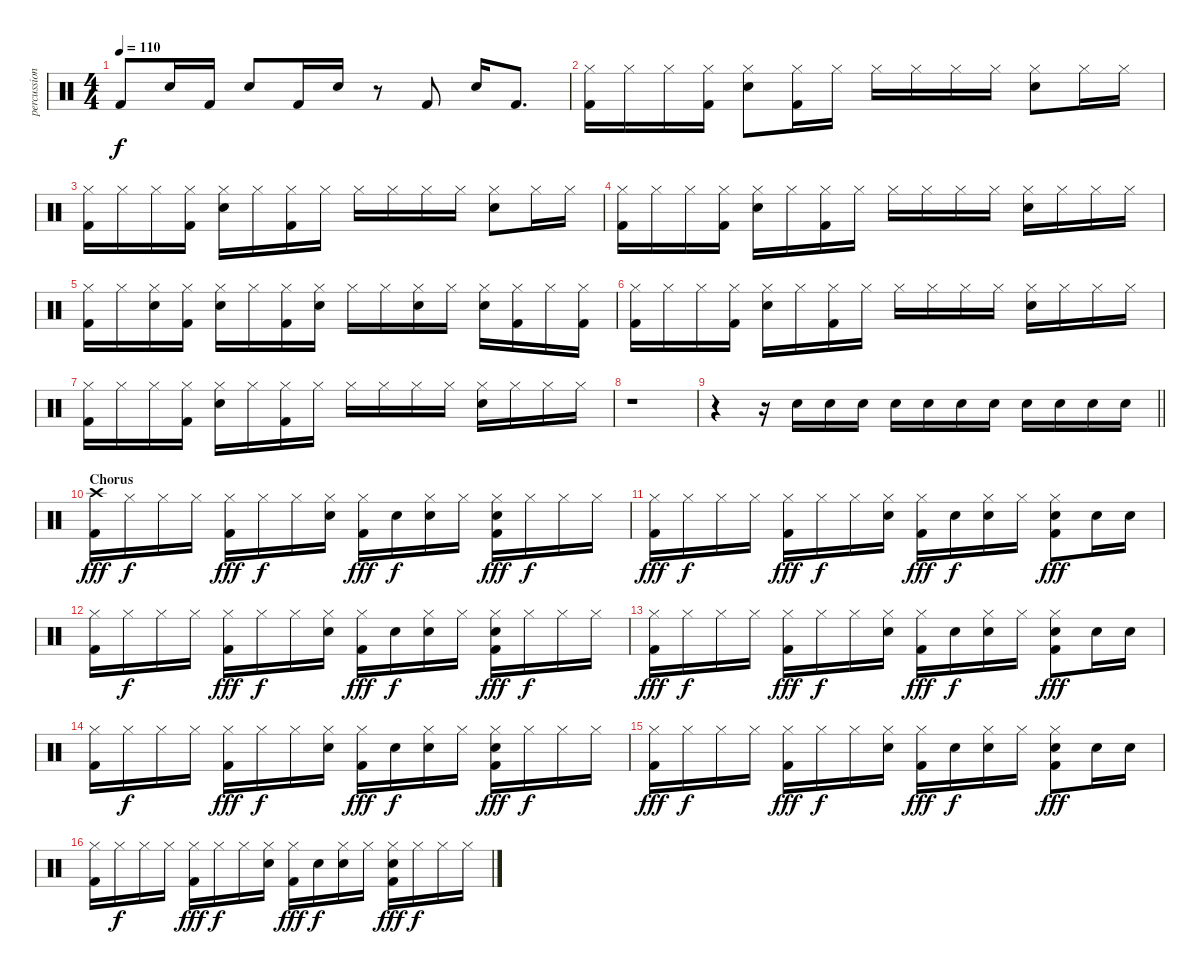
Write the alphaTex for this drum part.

\track ("percussion []" "percussion") {instrument percussion}
\staff {score}
\articulation defaults
\ts (4 4)
\tempo 110
\clef neutral
\ks c "Kick (hit) 2".8{dy f} "Electric Snare (hit)".16 "Kick (hit) 2".16 "Electric Snare (hit)".8 "Kick (hit) 2".16 "Electric Snare (hit)".16
r.8 "Kick (hit) 2".8 "Electric Snare (hit)".16 "Kick (hit) 2".8{d} |
("Hi-Hat (closed)" "Kick (hit) 2").16 "Hi-Hat (closed)".16 "Hi-Hat (closed)".16 ("Hi-Hat (closed)" "Kick (hit) 2").16 ("Electric Snare (hit)" "Hi-Hat (closed)").8 ("Hi-Hat (closed)" "Kick (hit) 2").16 "Hi-Hat (closed)".16 "Hi-Hat (closed)".16 "Hi-Hat (closed)".16 "Hi-Hat (closed)".16 "Hi-Hat (closed)".16 ("Electric Snare (hit)" "Hi-Hat (closed)").8 "Hi-Hat (closed)".16 "Hi-Hat (closed)".16 |
("Hi-Hat (closed)" "Kick (hit) 2").16 "Hi-Hat (closed)".16 "Hi-Hat (closed)".16 ("Hi-Hat (closed)" "Kick (hit) 2").16 ("Electric Snare (hit)" "Hi-Hat (closed)").16 "Hi-Hat (closed)".16 ("Hi-Hat (closed)" "Kick (hit) 2").16 "Hi-Hat (closed)".16 "Hi-Hat (closed)".16 "Hi-Hat (closed)".16 "Hi-Hat (closed)".16 "Hi-Hat (closed)".16 ("Electric Snare (hit)" "Hi-Hat (closed)").8 "Hi-Hat (closed)".16 "Hi-Hat (closed)".16 |
("Hi-Hat (closed)" "Kick (hit) 2").16 "Hi-Hat (closed)".16 "Hi-Hat (closed)".16 ("Hi-Hat (closed)" "Kick (hit) 2").16 ("Electric Snare (hit)" "Hi-Hat (closed)").16 "Hi-Hat (closed)".16 ("Hi-Hat (closed)" "Kick (hit) 2").16 "Hi-Hat (closed)".16 "Hi-Hat (closed)".16 "Hi-Hat (closed)".16 "Hi-Hat (closed)".16 "Hi-Hat (closed)".16 ("Electric Snare (hit)" "Hi-Hat (closed)").16 "Hi-Hat (closed)".16 "Hi-Hat (closed)".16 "Hi-Hat (closed)".16 |
("Hi-Hat (closed)" "Kick (hit) 2").16 "Hi-Hat (closed)".16 ("Electric Snare (hit)" "Hi-Hat (closed)").16 ("Hi-Hat (closed)" "Kick (hit) 2").16 ("Electric Snare (hit)" "Hi-Hat (closed)").16 "Hi-Hat (closed)".16 ("Hi-Hat (closed)" "Kick (hit) 2").16 ("Electric Snare (hit)" "Hi-Hat (closed)").16 "Hi-Hat (closed)".16 "Hi-Hat (closed)".16 ("Electric Snare (hit)" "Hi-Hat (closed)").16 "Hi-Hat (closed)".16 ("Electric Snare (hit)" "Hi-Hat (closed)").16 ("Hi-Hat (closed)" "Kick (hit) 2").16 "Hi-Hat (closed)".16 ("Hi-Hat (closed)" "Kick (hit) 2").16 |
("Hi-Hat (closed)" "Kick (hit) 2").16 "Hi-Hat (closed)".16 "Hi-Hat (closed)".16 ("Hi-Hat (closed)" "Kick (hit) 2").16 ("Electric Snare (hit)" "Hi-Hat (closed)").16 "Hi-Hat (closed)".16 ("Hi-Hat (closed)" "Kick (hit) 2").16 "Hi-Hat (closed)".16 "Hi-Hat (closed)".16 "Hi-Hat (closed)".16 "Hi-Hat (closed)".16 "Hi-Hat (closed)".16 ("Electric Snare (hit)" "Hi-Hat (closed)").16 "Hi-Hat (closed)".16 "Hi-Hat (closed)".16 "Hi-Hat (closed)".16 |
("Hi-Hat (closed)" "Kick (hit) 2").16 "Hi-Hat (closed)".16 "Hi-Hat (closed)".16 ("Hi-Hat (closed)" "Kick (hit) 2").16 ("Electric Snare (hit)" "Hi-Hat (closed)").16 "Hi-Hat (closed)".16 ("Hi-Hat (closed)" "Kick (hit) 2").16 "Hi-Hat (closed)".16 "Hi-Hat (closed)".16 "Hi-Hat (closed)".16 "Hi-Hat (closed)".16 "Hi-Hat (closed)".16 ("Electric Snare (hit)" "Hi-Hat (closed)").16 "Hi-Hat (closed)".16 "Hi-Hat (closed)".16 "Hi-Hat (closed)".16 |
r.1 |
\barLineRight lightlight
r.4 r.16 "Electric Snare (hit)".16 "Electric Snare (hit)".16 "Electric Snare (hit)".16 "Electric Snare (hit)".16 "Electric Snare (hit)".16 "Electric Snare (hit)".16 "Electric Snare (hit)".16 "Electric Snare (hit)".16 "Electric Snare (hit)".16 "Electric Snare (hit)".16 "Electric Snare (hit)".16 |
\section ("" "Chorus")
("Crash high (hit)" "Kick (hit) 2").16{dy fff} "Hi-Hat (closed)".16{dy f} "Hi-Hat (closed)".16 "Hi-Hat (closed)".16 ("Hi-Hat (closed)" "Kick (hit) 2").16{dy fff} "Hi-Hat (closed)".16{dy f} "Hi-Hat (closed)".16 ("Electric Snare (hit)" "Hi-Hat (closed)").16 ("Hi-Hat (closed)" "Kick (hit) 2").16{dy fff} "Electric Snare (hit)".16{dy f} ("Electric Snare (hit)" "Hi-Hat (closed)").16 "Hi-Hat (closed)".16 ("Electric Snare (hit)" "Hi-Hat (closed)" "Kick (hit) 2").16{dy fff} "Hi-Hat (closed)".16{dy f} "Hi-Hat (closed)".16 "Hi-Hat (closed)".16 |
("Hi-Hat (closed)" "Kick (hit) 2").16{dy fff} "Hi-Hat (closed)".16{dy f} "Hi-Hat (closed)".16 "Hi-Hat (closed)".16 ("Hi-Hat (closed)" "Kick (hit) 2").16{dy fff} "Hi-Hat (closed)".16{dy f} "Hi-Hat (closed)".16 ("Electric Snare (hit)" "Hi-Hat (closed)").16 ("Hi-Hat (closed)" "Kick (hit) 2").16{dy fff} "Electric Snare (hit)".16{dy f} ("Electric Snare (hit)" "Hi-Hat (closed)").16 "Hi-Hat (closed)".16 ("Electric Snare (hit)" "Hi-Hat (closed)" "Kick (hit) 2").8{dy fff} "Electric Snare (hit)".16 "Electric Snare (hit)".16 |
("Hi-Hat (closed)" "Kick (hit) 2").16 "Hi-Hat (closed)".16{dy f} "Hi-Hat (closed)".16 "Hi-Hat (closed)".16 ("Hi-Hat (closed)" "Kick (hit) 2").16{dy fff} "Hi-Hat (closed)".16{dy f} "Hi-Hat (closed)".16 ("Electric Snare (hit)" "Hi-Hat (closed)").16 ("Hi-Hat (closed)" "Kick (hit) 2").16{dy fff} "Electric Snare (hit)".16{dy f} ("Electric Snare (hit)" "Hi-Hat (closed)").16 "Hi-Hat (closed)".16 ("Electric Snare (hit)" "Hi-Hat (closed)" "Kick (hit) 2").16{dy fff} "Hi-Hat (closed)".16{dy f} "Hi-Hat (closed)".16 "Hi-Hat (closed)".16 |
("Hi-Hat (closed)" "Kick (hit) 2").16{dy fff} "Hi-Hat (closed)".16{dy f} "Hi-Hat (closed)".16 "Hi-Hat (closed)".16 ("Hi-Hat (closed)" "Kick (hit) 2").16{dy fff} "Hi-Hat (closed)".16{dy f} "Hi-Hat (closed)".16 ("Electric Snare (hit)" "Hi-Hat (closed)").16 ("Hi-Hat (closed)" "Kick (hit) 2").16{dy fff} "Electric Snare (hit)".16{dy f} ("Electric Snare (hit)" "Hi-Hat (closed)").16 "Hi-Hat (closed)".16 ("Electric Snare (hit)" "Hi-Hat (closed)" "Kick (hit) 2").8{dy fff} "Electric Snare (hit)".16 "Electric Snare (hit)".16 |
("Hi-Hat (closed)" "Kick (hit) 2").16 "Hi-Hat (closed)".16{dy f} "Hi-Hat (closed)".16 "Hi-Hat (closed)".16 ("Hi-Hat (closed)" "Kick (hit) 2").16{dy fff} "Hi-Hat (closed)".16{dy f} "Hi-Hat (closed)".16 ("Electric Snare (hit)" "Hi-Hat (closed)").16 ("Hi-Hat (closed)" "Kick (hit) 2").16{dy fff} "Electric Snare (hit)".16{dy f} ("Electric Snare (hit)" "Hi-Hat (closed)").16 "Hi-Hat (closed)".16 ("Electric Snare (hit)" "Hi-Hat (closed)" "Kick (hit) 2").16{dy fff} "Hi-Hat (closed)".16{dy f} "Hi-Hat (closed)".16 "Hi-Hat (closed)".16 |
("Hi-Hat (closed)" "Kick (hit) 2").16{dy fff} "Hi-Hat (closed)".16{dy f} "Hi-Hat (closed)".16 "Hi-Hat (closed)".16 ("Hi-Hat (closed)" "Kick (hit) 2").16{dy fff} "Hi-Hat (closed)".16{dy f} "Hi-Hat (closed)".16 ("Electric Snare (hit)" "Hi-Hat (closed)").16 ("Hi-Hat (closed)" "Kick (hit) 2").16{dy fff} "Electric Snare (hit)".16{dy f} ("Electric Snare (hit)" "Hi-Hat (closed)").16 "Hi-Hat (closed)".16 ("Electric Snare (hit)" "Hi-Hat (closed)" "Kick (hit) 2").8{dy fff} "Electric Snare (hit)".16 "Electric Snare (hit)".16 |
("Hi-Hat (closed)" "Kick (hit) 2").16 "Hi-Hat (closed)".16{dy f} "Hi-Hat (closed)".16 "Hi-Hat (closed)".16 ("Hi-Hat (closed)" "Kick (hit) 2").16{dy fff} "Hi-Hat (closed)".16{dy f} "Hi-Hat (closed)".16 ("Electric Snare (hit)" "Hi-Hat (closed)").16 ("Hi-Hat (closed)" "Kick (hit) 2").16{dy fff} "Electric Snare (hit)".16{dy f} ("Electric Snare (hit)" "Hi-Hat (closed)").16 "Hi-Hat (closed)".16 ("Electric Snare (hit)" "Hi-Hat (closed)" "Kick (hit) 2").16{dy fff} "Hi-Hat (closed)".16{dy f} "Hi-Hat (closed)".16 "Hi-Hat (closed)".16
